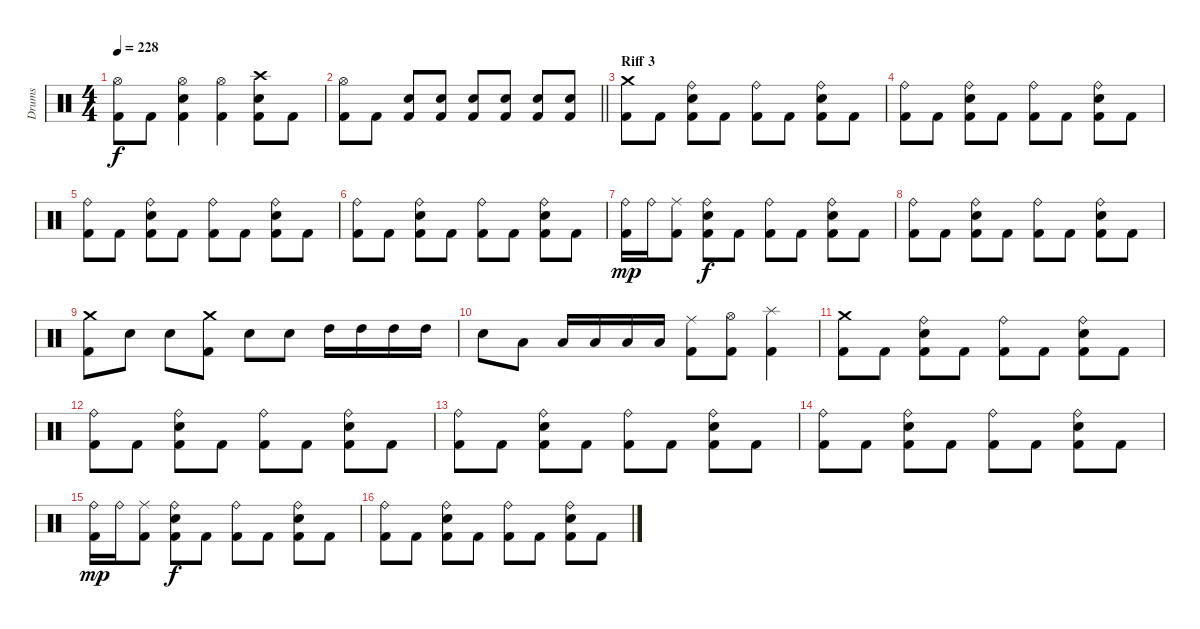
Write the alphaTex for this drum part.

\track ("Drums" "Drums") {instrument percussion}
\staff {score}
\articulation defaults
\ts (4 4)
\tempo 228
\clef neutral
\ks c
("Hi-Hat (open)" "Kick (hit) 2").8{dy f} "Kick (hit) 2".8 ("Electric Snare (hit)" "Kick (hit) 2" "Hi-Hat (open)").4 ("Hi-Hat (open)" "Kick (hit) 2").4 ("Crash high (hit)" "Kick (hit) 2" "Electric Snare (hit)").8 "Kick (hit) 2".8 |
\barLineRight lightlight
("Hi-Hat (open)" "Kick (hit) 2").8 "Kick (hit) 2".8 ("Electric Snare (hit)" "Kick (hit) 2").8 ("Electric Snare (hit)" "Kick (hit) 2").8 ("Electric Snare (hit)" "Kick (hit) 2").8 ("Electric Snare (hit)" "Kick (hit) 2").8 ("Electric Snare (hit)" "Kick (hit) 2").8 ("Electric Snare (hit)" "Kick (hit) 2").8 |
\section ("" "Riff 3")
("Crash medium (hit)" "Kick (hit) 2").8 "Kick (hit) 2".8 ("Ride (bell)" "Electric Snare (hit)" "Kick (hit) 2").8 "Kick (hit) 2".8 ("Ride (bell)" "Kick (hit) 2").8 "Kick (hit) 2".8 ("Ride (bell)" "Electric Snare (hit)" "Kick (hit) 2").8 "Kick (hit) 2".8 |
("Ride (bell)" "Kick (hit) 2").8 "Kick (hit) 2".8 ("Ride (bell)" "Electric Snare (hit)" "Kick (hit) 2").8 "Kick (hit) 2".8 ("Ride (bell)" "Kick (hit) 2").8 "Kick (hit) 2".8 ("Ride (bell)" "Electric Snare (hit)" "Kick (hit) 2").8 "Kick (hit) 2".8 |
("Ride (bell)" "Kick (hit) 2").8 "Kick (hit) 2".8 ("Ride (bell)" "Electric Snare (hit)" "Kick (hit) 2").8 "Kick (hit) 2".8 ("Ride (bell)" "Kick (hit) 2").8 "Kick (hit) 2".8 ("Ride (bell)" "Electric Snare (hit)" "Kick (hit) 2").8 "Kick (hit) 2".8 |
("Ride (bell)" "Kick (hit) 2").8 "Kick (hit) 2".8 ("Ride (bell)" "Electric Snare (hit)" "Kick (hit) 2").8 "Kick (hit) 2".8 ("Ride (bell)" "Kick (hit) 2").8 "Kick (hit) 2".8 ("Ride (bell)" "Electric Snare (hit)" "Kick (hit) 2").8 "Kick (hit) 2".8 |
("Ride (bell)" "Kick (hit) 2").16{dy mp} "Ride (bell)".16 ("Ride (middle)" "Kick (hit) 2").8 ("Ride (bell)" "Electric Snare (hit)" "Kick (hit) 2").8{dy f} "Kick (hit) 2".8 ("Ride (bell)" "Kick (hit) 2").8 "Kick (hit) 2".8 ("Ride (bell)" "Electric Snare (hit)" "Kick (hit) 2").8 "Kick (hit) 2".8 |
("Ride (bell)" "Kick (hit) 2").8 "Kick (hit) 2".8 ("Ride (bell)" "Electric Snare (hit)" "Kick (hit) 2").8 "Kick (hit) 2".8 ("Ride (bell)" "Kick (hit) 2").8 "Kick (hit) 2".8 ("Ride (bell)" "Electric Snare (hit)" "Kick (hit) 2").8 "Kick (hit) 2".8 |
("Crash medium (hit)" "Kick (hit) 2").8 "Electric Snare (hit)".8 "Electric Snare (hit)".8 ("Kick (hit) 2" "Crash medium (hit)").8 "Electric Snare (hit)".8 "Electric Snare (hit)".8 "High Tom (hit)".16 "High Tom (hit)".16 "High Tom (hit)".16 "High Tom (hit)".16 |
"Electric Snare (hit)".8 "Low Tom (hit)".8 "Low Tom (hit)".16 "Low Tom (hit)".16 "Low Tom (hit)".16 "Low Tom (hit)".16 ("Ride (middle)" "Kick (hit) 2").8 ("Hi-Hat (open)" "Kick (hit) 2").8 ("Splash (hit)" "Kick (hit) 2").4 |
("Crash medium (hit)" "Kick (hit) 2").8 "Kick (hit) 2".8 ("Ride (bell)" "Electric Snare (hit)" "Kick (hit) 2").8 "Kick (hit) 2".8 ("Ride (bell)" "Kick (hit) 2").8 "Kick (hit) 2".8 ("Ride (bell)" "Electric Snare (hit)" "Kick (hit) 2").8 "Kick (hit) 2".8 |
("Ride (bell)" "Kick (hit) 2").8 "Kick (hit) 2".8 ("Ride (bell)" "Electric Snare (hit)" "Kick (hit) 2").8 "Kick (hit) 2".8 ("Ride (bell)" "Kick (hit) 2").8 "Kick (hit) 2".8 ("Ride (bell)" "Electric Snare (hit)" "Kick (hit) 2").8 "Kick (hit) 2".8 |
("Ride (bell)" "Kick (hit) 2").8 "Kick (hit) 2".8 ("Ride (bell)" "Electric Snare (hit)" "Kick (hit) 2").8 "Kick (hit) 2".8 ("Ride (bell)" "Kick (hit) 2").8 "Kick (hit) 2".8 ("Ride (bell)" "Electric Snare (hit)" "Kick (hit) 2").8 "Kick (hit) 2".8 |
("Ride (bell)" "Kick (hit) 2").8 "Kick (hit) 2".8 ("Ride (bell)" "Electric Snare (hit)" "Kick (hit) 2").8 "Kick (hit) 2".8 ("Ride (bell)" "Kick (hit) 2").8 "Kick (hit) 2".8 ("Ride (bell)" "Electric Snare (hit)" "Kick (hit) 2").8 "Kick (hit) 2".8 |
("Ride (bell)" "Kick (hit) 2").16{dy mp} "Ride (bell)".16 ("Ride (middle)" "Kick (hit) 2").8 ("Ride (bell)" "Electric Snare (hit)" "Kick (hit) 2").8{dy f} "Kick (hit) 2".8 ("Ride (bell)" "Kick (hit) 2").8 "Kick (hit) 2".8 ("Ride (bell)" "Electric Snare (hit)" "Kick (hit) 2").8 "Kick (hit) 2".8 |
("Ride (bell)" "Kick (hit) 2").8 "Kick (hit) 2".8 ("Ride (bell)" "Electric Snare (hit)" "Kick (hit) 2").8 "Kick (hit) 2".8 ("Ride (bell)" "Kick (hit) 2").8 "Kick (hit) 2".8 ("Ride (bell)" "Electric Snare (hit)" "Kick (hit) 2").8 "Kick (hit) 2".8
